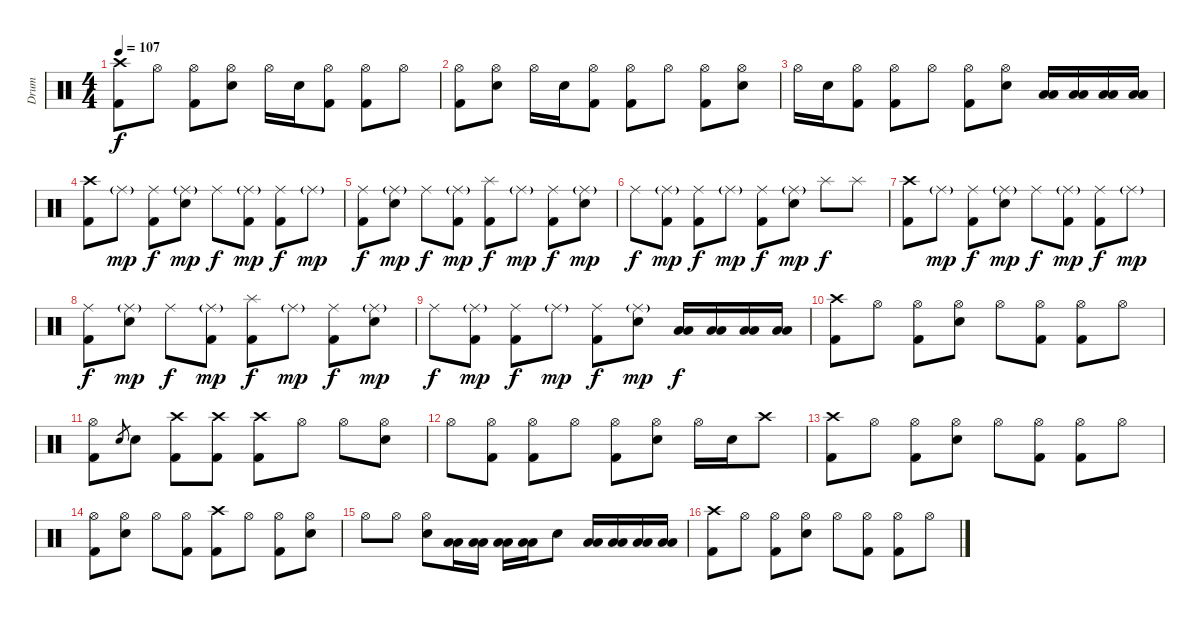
\track ("Drum" "Drum") {instrument percussion}
\staff {score}
\articulation defaults
\ts (4 4)
\tempo 107
\clef neutral
\ks c
("Crash high (hit)" "Kick (hit) 2").8{dy f} "Hi-Hat (open)".8 ("Hi-Hat (open)" "Kick (hit) 2").8 ("Hi-Hat (open)" "Electric Snare (hit)").8 "Hi-Hat (open)".16 "Electric Snare (hit)".16 ("Hi-Hat (open)" "Kick (hit) 2").8 ("Hi-Hat (open)" "Kick (hit) 2").8 "Hi-Hat (open)".8 |
("Hi-Hat (open)" "Kick (hit) 2").8 ("Hi-Hat (open)" "Electric Snare (hit)").8 "Hi-Hat (open)".16 "Electric Snare (hit)".16 ("Hi-Hat (open)" "Kick (hit) 2").8 ("Hi-Hat (open)" "Kick (hit) 2").8 "Hi-Hat (open)".8 ("Hi-Hat (open)" "Kick (hit) 2").8 ("Hi-Hat (open)" "Electric Snare (hit)").8 |
"Hi-Hat (open)".16 "Electric Snare (hit)".16 ("Hi-Hat (open)" "Kick (hit) 2").8 ("Hi-Hat (open)" "Kick (hit) 2").8 "Hi-Hat (open)".8 ("Hi-Hat (open)" "Kick (hit) 2").8 ("Hi-Hat (open)" "Electric Snare (hit)").8 ("Low Floor Tom (hit)" "Low Tom (hit)").16 ("Low Floor Tom (hit)" "Low Tom (hit)").16 ("Low Floor Tom (hit)" "Low Tom (hit)").16 ("Low Floor Tom (hit)" "Low Tom (hit)").16 |
("Crash high (hit)" "Kick (hit) 2").8 "Ride (middle)"{g}.8{dy mp} ("Ride (middle)" "Kick (hit) 2").8{dy f} ("Ride (middle)"{g} "Electric Snare (hit)").8{dy mp} "Ride (middle)".8{dy f} ("Ride (middle)"{g} "Kick (hit) 2").8{dy mp} ("Ride (middle)" "Kick (hit) 2").8{dy f} "Ride (middle)"{g}.8{dy mp} |
("Ride (middle)" "Kick (hit) 2").8{dy f} ("Ride (middle)"{g} "Electric Snare (hit)").8{dy mp} "Ride (middle)".8{dy f} ("Ride (middle)"{g} "Kick (hit) 2").8{dy mp} ("Splash (hit)" "Kick (hit) 2").8{dy f} "Ride (middle)"{g}.8{dy mp} ("Ride (middle)" "Kick (hit) 2").8{dy f} ("Ride (middle)"{g} "Electric Snare (hit)").8{dy mp} |
"Ride (middle)".8{dy f} ("Ride (middle)"{g} "Kick (hit) 2").8{dy mp} ("Ride (middle)" "Kick (hit) 2").8{dy f} "Ride (middle)"{g}.8{dy mp} ("Ride (middle)" "Kick (hit) 2").8{dy f} ("Ride (middle)"{g} "Electric Snare (hit)").8{dy mp} "Splash (hit)".8{dy f} "Splash (hit)".8 |
("Crash high (hit)" "Kick (hit) 2").8 "Ride (middle)"{g}.8{dy mp} ("Ride (middle)" "Kick (hit) 2").8{dy f} ("Ride (middle)"{g} "Electric Snare (hit)").8{dy mp} "Ride (middle)".8{dy f} ("Ride (middle)"{g} "Kick (hit) 2").8{dy mp} ("Ride (middle)" "Kick (hit) 2").8{dy f} "Ride (middle)"{g}.8{dy mp} |
("Ride (middle)" "Kick (hit) 2").8{dy f} ("Ride (middle)"{g} "Electric Snare (hit)").8{dy mp} "Ride (middle)".8{dy f} ("Ride (middle)"{g} "Kick (hit) 2").8{dy mp} ("Splash (hit)" "Kick (hit) 2").8{dy f} "Ride (middle)"{g}.8{dy mp} ("Ride (middle)" "Kick (hit) 2").8{dy f} ("Ride (middle)"{g} "Electric Snare (hit)").8{dy mp} |
"Ride (middle)".8{dy f} ("Ride (middle)"{g} "Kick (hit) 2").8{dy mp} ("Ride (middle)" "Kick (hit) 2").8{dy f} "Ride (middle)"{g}.8{dy mp} ("Ride (middle)" "Kick (hit) 2").8{dy f} ("Ride (middle)"{g} "Electric Snare (hit)").8{dy mp} ("Low Tom (hit)" "Low Floor Tom (hit)").16{dy f} ("Low Tom (hit)" "Low Floor Tom (hit)").16 ("Low Tom (hit)" "Low Floor Tom (hit)").16 ("Low Tom (hit)" "Low Floor Tom (hit)").16 |
("Crash high (hit)" "Kick (hit) 2").8 "Hi-Hat (open)".8 ("Hi-Hat (open)" "Kick (hit) 2").8 ("Hi-Hat (open)" "Electric Snare (hit)").8 "Hi-Hat (open)".8 ("Hi-Hat (open)" "Kick (hit) 2").8 ("Hi-Hat (open)" "Kick (hit) 2").8 "Hi-Hat (open)".8 |
("Hi-Hat (open)" "Kick (hit) 2").8 "Electric Snare (hit)".8{gr} "Electric Snare (hit)".8 ("Crash high (hit)" "Kick (hit) 2").8 ("Crash high (hit)" "Kick (hit) 2").8 ("Crash high (hit)" "Kick (hit) 2").8 "Hi-Hat (open)".8 "Hi-Hat (open)".8 ("Hi-Hat (open)" "Electric Snare (hit)").8 |
"Hi-Hat (open)".8 ("Hi-Hat (open)" "Kick (hit) 2").8 ("Hi-Hat (open)" "Kick (hit) 2").8 "Hi-Hat (open)".8 ("Hi-Hat (open)" "Kick (hit) 2").8 ("Hi-Hat (open)" "Electric Snare (hit)").8 "Hi-Hat (open)".16 "Electric Snare (hit)".16 "Crash high (hit)".8 |
("Crash high (hit)" "Kick (hit) 2").8 "Hi-Hat (open)".8 ("Hi-Hat (open)" "Kick (hit) 2").8 ("Hi-Hat (open)" "Electric Snare (hit)").8 "Hi-Hat (open)".8 ("Hi-Hat (open)" "Kick (hit) 2").8 ("Hi-Hat (open)" "Kick (hit) 2").8 "Hi-Hat (open)".8 |
("Hi-Hat (open)" "Kick (hit) 2").8 ("Hi-Hat (open)" "Electric Snare (hit)").8 "Hi-Hat (open)".8 ("Hi-Hat (open)" "Kick (hit) 2").8 ("Crash high (hit)" "Kick (hit) 2").8 "Hi-Hat (open)".8 ("Hi-Hat (open)" "Kick (hit) 2").8 ("Hi-Hat (open)" "Electric Snare (hit)").8 |
"Hi-Hat (open)".8 "Hi-Hat (open)".8 ("Hi-Hat (open)" "Electric Snare (hit)").8 ("Low Tom (hit)" "Low Floor Tom (hit)").16 ("Low Tom (hit)" "Low Floor Tom (hit)").16 ("Low Tom (hit)" "Low Floor Tom (hit)").16 ("Low Tom (hit)" "Low Floor Tom (hit)").16 "Electric Snare (hit)".8 ("Low Tom (hit)" "Low Floor Tom (hit)").16 ("Low Tom (hit)" "Low Floor Tom (hit)").16 ("Low Tom (hit)" "Low Floor Tom (hit)").16 ("Low Tom (hit)" "Low Floor Tom (hit)").16 |
("Crash high (hit)" "Kick (hit) 2").8 "Hi-Hat (open)".8 ("Hi-Hat (open)" "Kick (hit) 2").8 ("Hi-Hat (open)" "Electric Snare (hit)").8 "Hi-Hat (open)".8 ("Hi-Hat (open)" "Kick (hit) 2").8 ("Hi-Hat (open)" "Kick (hit) 2").8 "Hi-Hat (open)".8
